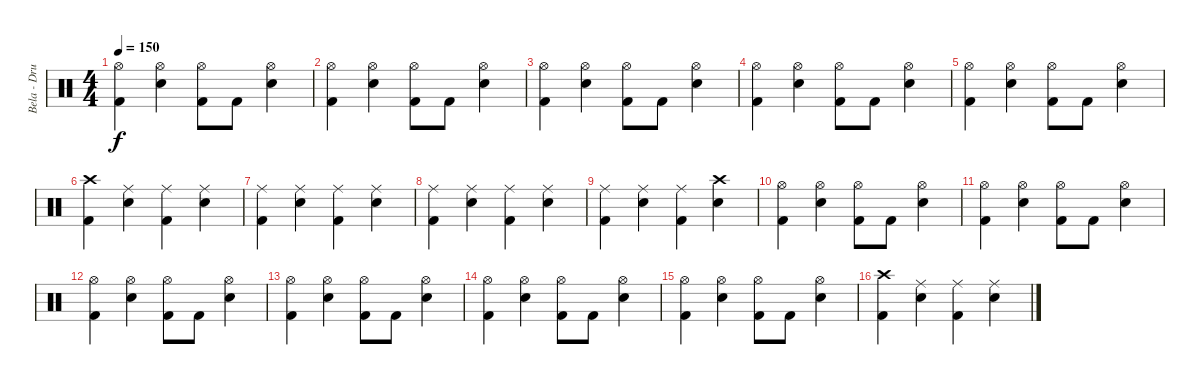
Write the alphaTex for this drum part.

\track ("Bela - Drums" "Bela - Dru") {instrument percussion}
\staff {score}
\articulation defaults
\ts (4 4)
\tempo 150
\clef neutral
\ks c
("Hi-Hat (open)" "Kick (hit) 2").4{dy f} ("Hi-Hat (open)" "Snare (hit) 2").4 ("Hi-Hat (open)" "Kick (hit) 2").8 "Kick (hit) 2".8 ("Hi-Hat (open)" "Snare (hit) 2").4 |
("Hi-Hat (open)" "Kick (hit) 2").4 ("Hi-Hat (open)" "Snare (hit) 2").4 ("Hi-Hat (open)" "Kick (hit) 2").8 "Kick (hit) 2".8 ("Hi-Hat (open)" "Snare (hit) 2").4 |
("Hi-Hat (open)" "Kick (hit) 2").4 ("Hi-Hat (open)" "Snare (hit) 2").4 ("Hi-Hat (open)" "Kick (hit) 2").8 "Kick (hit) 2".8 ("Hi-Hat (open)" "Snare (hit) 2").4 |
("Hi-Hat (open)" "Kick (hit) 2").4 ("Hi-Hat (open)" "Snare (hit) 2").4 ("Hi-Hat (open)" "Kick (hit) 2").8 "Kick (hit) 2".8 ("Hi-Hat (open)" "Snare (hit) 2").4 |
("Hi-Hat (open)" "Kick (hit) 2").4 ("Hi-Hat (open)" "Snare (hit) 2").4 ("Hi-Hat (open)" "Kick (hit) 2").8 "Kick (hit) 2".8 ("Hi-Hat (open)" "Snare (hit) 2").4 |
("Crash high (hit)" "Kick (hit) 2").4 ("Ride (middle)" "Snare (hit) 2").4 ("Ride (middle)" "Kick (hit) 2").4 ("Ride (middle)" "Snare (hit) 2").4 |
("Ride (middle)" "Kick (hit) 2").4 ("Ride (middle)" "Snare (hit) 2").4 ("Ride (middle)" "Kick (hit) 2").4 ("Ride (middle)" "Snare (hit) 2").4 |
("Ride (middle)" "Kick (hit) 2").4 ("Ride (middle)" "Snare (hit) 2").4 ("Ride (middle)" "Kick (hit) 2").4 ("Ride (middle)" "Snare (hit) 2").4 |
("Ride (middle)" "Kick (hit) 2").4 ("Ride (middle)" "Snare (hit) 2").4 ("Ride (middle)" "Kick (hit) 2").4 ("Crash high (hit)" "Snare (hit) 2").4 |
("Hi-Hat (open)" "Kick (hit) 2").4 ("Hi-Hat (open)" "Snare (hit) 2").4 ("Hi-Hat (open)" "Kick (hit) 2").8 "Kick (hit) 2".8 ("Hi-Hat (open)" "Snare (hit) 2").4 |
("Hi-Hat (open)" "Kick (hit) 2").4 ("Hi-Hat (open)" "Snare (hit) 2").4 ("Hi-Hat (open)" "Kick (hit) 2").8 "Kick (hit) 2".8 ("Hi-Hat (open)" "Snare (hit) 2").4 |
("Hi-Hat (open)" "Kick (hit) 2").4 ("Hi-Hat (open)" "Snare (hit) 2").4 ("Hi-Hat (open)" "Kick (hit) 2").8 "Kick (hit) 2".8 ("Hi-Hat (open)" "Snare (hit) 2").4 |
("Hi-Hat (open)" "Kick (hit) 2").4 ("Hi-Hat (open)" "Snare (hit) 2").4 ("Hi-Hat (open)" "Kick (hit) 2").8 "Kick (hit) 2".8 ("Hi-Hat (open)" "Snare (hit) 2").4 |
("Hi-Hat (open)" "Kick (hit) 2").4 ("Hi-Hat (open)" "Snare (hit) 2").4 ("Hi-Hat (open)" "Kick (hit) 2").8 "Kick (hit) 2".8 ("Hi-Hat (open)" "Snare (hit) 2").4 |
("Hi-Hat (open)" "Kick (hit) 2").4 ("Hi-Hat (open)" "Snare (hit) 2").4 ("Hi-Hat (open)" "Kick (hit) 2").8 "Kick (hit) 2".8 ("Hi-Hat (open)" "Snare (hit) 2").4 |
("Crash high (hit)" "Kick (hit) 2").4 ("Ride (middle)" "Snare (hit) 2").4 ("Ride (middle)" "Kick (hit) 2").4 ("Ride (middle)" "Snare (hit) 2").4
